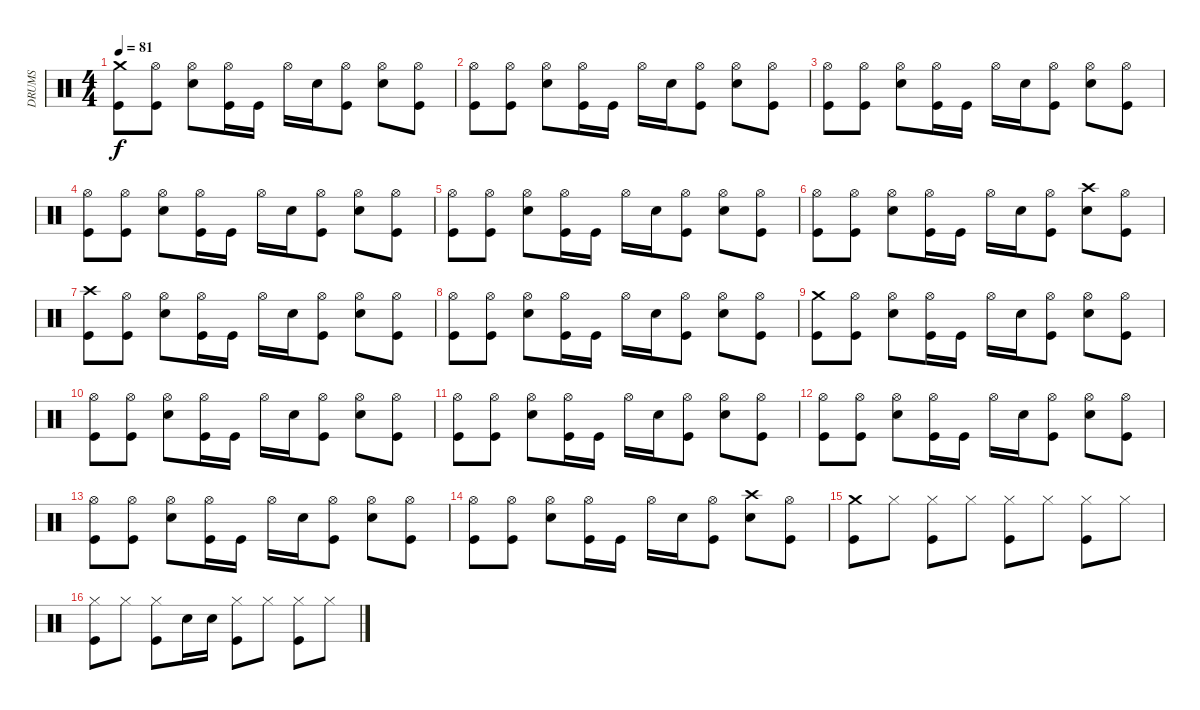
\track ("DRUMS" "DRUMS") {instrument percussion}
\staff {score}
\articulation defaults
\ts (4 4)
\tempo 81
\clef neutral
\ks c
("Crash medium (hit)" "Kick (hit)").8{dy f} ("Hi-Hat (open)" "Kick (hit)").8 ("Hi-Hat (open)" "Electric Snare (hit)").8 ("Hi-Hat (open)" "Kick (hit)").16 "Kick (hit)".16 "Hi-Hat (open)".16 "Electric Snare (hit)".16 ("Hi-Hat (open)" "Kick (hit)").8 ("Hi-Hat (open)" "Electric Snare (hit)").8 ("Hi-Hat (open)" "Kick (hit)").8 |
("Hi-Hat (open)" "Kick (hit)").8 ("Hi-Hat (open)" "Kick (hit)").8 ("Hi-Hat (open)" "Electric Snare (hit)").8 ("Hi-Hat (open)" "Kick (hit)").16 "Kick (hit)".16 "Hi-Hat (open)".16 "Electric Snare (hit)".16 ("Hi-Hat (open)" "Kick (hit)").8 ("Hi-Hat (open)" "Electric Snare (hit)").8 ("Hi-Hat (open)" "Kick (hit)").8 |
("Hi-Hat (open)" "Kick (hit)").8 ("Hi-Hat (open)" "Kick (hit)").8 ("Hi-Hat (open)" "Electric Snare (hit)").8 ("Hi-Hat (open)" "Kick (hit)").16 "Kick (hit)".16 "Hi-Hat (open)".16 "Electric Snare (hit)".16 ("Hi-Hat (open)" "Kick (hit)").8 ("Hi-Hat (open)" "Electric Snare (hit)").8 ("Hi-Hat (open)" "Kick (hit)").8 |
("Hi-Hat (open)" "Kick (hit)").8 ("Hi-Hat (open)" "Kick (hit)").8 ("Hi-Hat (open)" "Electric Snare (hit)").8 ("Hi-Hat (open)" "Kick (hit)").16 "Kick (hit)".16 "Hi-Hat (open)".16 "Electric Snare (hit)".16 ("Hi-Hat (open)" "Kick (hit)").8 ("Hi-Hat (open)" "Electric Snare (hit)").8 ("Hi-Hat (open)" "Kick (hit)").8 |
("Hi-Hat (open)" "Kick (hit)").8 ("Hi-Hat (open)" "Kick (hit)").8 ("Hi-Hat (open)" "Electric Snare (hit)").8 ("Hi-Hat (open)" "Kick (hit)").16 "Kick (hit)".16 "Hi-Hat (open)".16 "Electric Snare (hit)".16 ("Hi-Hat (open)" "Kick (hit)").8 ("Hi-Hat (open)" "Electric Snare (hit)").8 ("Hi-Hat (open)" "Kick (hit)").8 |
("Hi-Hat (open)" "Kick (hit)").8 ("Hi-Hat (open)" "Kick (hit)").8 ("Hi-Hat (open)" "Electric Snare (hit)").8 ("Hi-Hat (open)" "Kick (hit)").16 "Kick (hit)".16 "Hi-Hat (open)".16 "Electric Snare (hit)".16 ("Hi-Hat (open)" "Kick (hit)").8 ("Crash high (hit)" "Electric Snare (hit)").8 ("Hi-Hat (open)" "Kick (hit)").8 |
("Crash high (hit)" "Kick (hit)").8 ("Hi-Hat (open)" "Kick (hit)").8 ("Hi-Hat (open)" "Electric Snare (hit)").8 ("Hi-Hat (open)" "Kick (hit)").16 "Kick (hit)".16 "Hi-Hat (open)".16 "Electric Snare (hit)".16 ("Hi-Hat (open)" "Kick (hit)").8 ("Hi-Hat (open)" "Electric Snare (hit)").8 ("Hi-Hat (open)" "Kick (hit)").8 |
("Hi-Hat (open)" "Kick (hit)").8 ("Hi-Hat (open)" "Kick (hit)").8 ("Hi-Hat (open)" "Electric Snare (hit)").8 ("Hi-Hat (open)" "Kick (hit)").16 "Kick (hit)".16 "Hi-Hat (open)".16 "Electric Snare (hit)".16 ("Hi-Hat (open)" "Kick (hit)").8 ("Hi-Hat (open)" "Electric Snare (hit)").8 ("Hi-Hat (open)" "Kick (hit)").8 |
("Crash medium (hit)" "Kick (hit)").8 ("Hi-Hat (open)" "Kick (hit)").8 ("Hi-Hat (open)" "Electric Snare (hit)").8 ("Hi-Hat (open)" "Kick (hit)").16 "Kick (hit)".16 "Hi-Hat (open)".16 "Electric Snare (hit)".16 ("Hi-Hat (open)" "Kick (hit)").8 ("Hi-Hat (open)" "Electric Snare (hit)").8 ("Hi-Hat (open)" "Kick (hit)").8 |
("Hi-Hat (open)" "Kick (hit)").8 ("Hi-Hat (open)" "Kick (hit)").8 ("Hi-Hat (open)" "Electric Snare (hit)").8 ("Hi-Hat (open)" "Kick (hit)").16 "Kick (hit)".16 "Hi-Hat (open)".16 "Electric Snare (hit)".16 ("Hi-Hat (open)" "Kick (hit)").8 ("Hi-Hat (open)" "Electric Snare (hit)").8 ("Hi-Hat (open)" "Kick (hit)").8 |
("Hi-Hat (open)" "Kick (hit)").8 ("Hi-Hat (open)" "Kick (hit)").8 ("Hi-Hat (open)" "Electric Snare (hit)").8 ("Hi-Hat (open)" "Kick (hit)").16 "Kick (hit)".16 "Hi-Hat (open)".16 "Electric Snare (hit)".16 ("Hi-Hat (open)" "Kick (hit)").8 ("Hi-Hat (open)" "Electric Snare (hit)").8 ("Hi-Hat (open)" "Kick (hit)").8 |
("Hi-Hat (open)" "Kick (hit)").8 ("Hi-Hat (open)" "Kick (hit)").8 ("Hi-Hat (open)" "Electric Snare (hit)").8 ("Hi-Hat (open)" "Kick (hit)").16 "Kick (hit)".16 "Hi-Hat (open)".16 "Electric Snare (hit)".16 ("Hi-Hat (open)" "Kick (hit)").8 ("Hi-Hat (open)" "Electric Snare (hit)").8 ("Hi-Hat (open)" "Kick (hit)").8 |
("Hi-Hat (open)" "Kick (hit)").8 ("Hi-Hat (open)" "Kick (hit)").8 ("Hi-Hat (open)" "Electric Snare (hit)").8 ("Hi-Hat (open)" "Kick (hit)").16 "Kick (hit)".16 "Hi-Hat (open)".16 "Electric Snare (hit)".16 ("Hi-Hat (open)" "Kick (hit)").8 ("Hi-Hat (open)" "Electric Snare (hit)").8 ("Hi-Hat (open)" "Kick (hit)").8 |
("Hi-Hat (open)" "Kick (hit)").8 ("Hi-Hat (open)" "Kick (hit)").8 ("Hi-Hat (open)" "Electric Snare (hit)").8 ("Hi-Hat (open)" "Kick (hit)").16 "Kick (hit)".16 "Hi-Hat (open)".16 "Electric Snare (hit)".16 ("Hi-Hat (open)" "Kick (hit)").8 ("Crash high (hit)" "Electric Snare (hit)").8 ("Hi-Hat (open)" "Kick (hit)").8 |
("Crash medium (hit)" "Kick (hit)").8 "Hi-Hat (closed)".8 ("Hi-Hat (closed)" "Kick (hit)").8 "Hi-Hat (closed)".8 ("Hi-Hat (closed)" "Kick (hit)").8 "Hi-Hat (closed)".8 ("Hi-Hat (closed)" "Kick (hit)").8 "Hi-Hat (closed)".8 |
("Hi-Hat (closed)" "Kick (hit)").8 "Hi-Hat (closed)".8 ("Hi-Hat (closed)" "Kick (hit)").8 "Electric Snare (hit)".16 "Electric Snare (hit)".16 ("Hi-Hat (closed)" "Kick (hit)").8 "Hi-Hat (closed)".8 ("Hi-Hat (closed)" "Kick (hit)").8 "Hi-Hat (closed)".8
